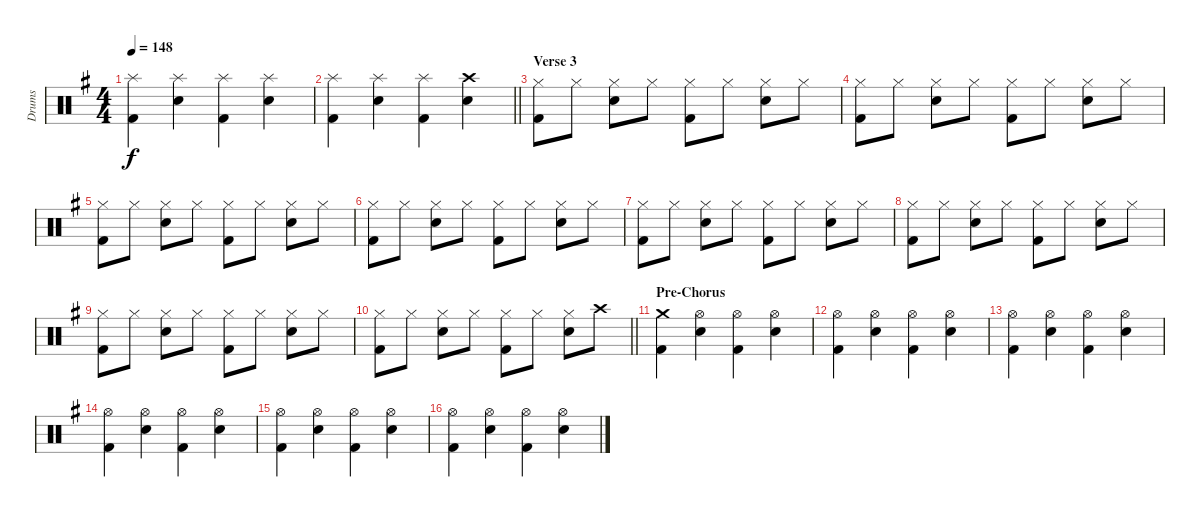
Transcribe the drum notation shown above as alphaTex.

\track ("Drums" "Drums") {instrument percussion}
\staff {score}
\articulation defaults
\ts (4 4)
\tempo 148
\clef neutral
\ks g
("Kick (hit) 2" "Splash (hit)").4{dy f} ("Snare (hit) 2" "Splash (hit)").4 ("Kick (hit) 2" "Splash (hit)").4 ("Snare (hit) 2" "Splash (hit)").4 |
\barLineRight lightlight
("Kick (hit) 2" "Splash (hit)").4 ("Snare (hit) 2" "Splash (hit)").4 ("Kick (hit) 2" "Splash (hit)").4 ("Snare (hit) 2" "Crash high (hit)").4 |
\section ("" "Verse 3")
("Kick (hit) 2" "Hi-Hat (closed)").8 "Hi-Hat (closed)".8 ("Snare (hit) 2" "Hi-Hat (closed)").8 "Hi-Hat (closed)".8 ("Kick (hit) 2" "Hi-Hat (closed)").8 "Hi-Hat (closed)".8 ("Snare (hit) 2" "Hi-Hat (closed)").8 "Hi-Hat (closed)".8 |
("Kick (hit) 2" "Hi-Hat (closed)").8 "Hi-Hat (closed)".8 ("Snare (hit) 2" "Hi-Hat (closed)").8 "Hi-Hat (closed)".8 ("Kick (hit) 2" "Hi-Hat (closed)").8 "Hi-Hat (closed)".8 ("Snare (hit) 2" "Hi-Hat (closed)").8 "Hi-Hat (closed)".8 |
("Kick (hit) 2" "Hi-Hat (closed)").8 "Hi-Hat (closed)".8 ("Snare (hit) 2" "Hi-Hat (closed)").8 "Hi-Hat (closed)".8 ("Kick (hit) 2" "Hi-Hat (closed)").8 "Hi-Hat (closed)".8 ("Snare (hit) 2" "Hi-Hat (closed)").8 "Hi-Hat (closed)".8 |
("Kick (hit) 2" "Hi-Hat (closed)").8 "Hi-Hat (closed)".8 ("Snare (hit) 2" "Hi-Hat (closed)").8 "Hi-Hat (closed)".8 ("Kick (hit) 2" "Hi-Hat (closed)").8 "Hi-Hat (closed)".8 ("Snare (hit) 2" "Hi-Hat (closed)").8 "Hi-Hat (closed)".8 |
("Kick (hit) 2" "Hi-Hat (closed)").8 "Hi-Hat (closed)".8 ("Snare (hit) 2" "Hi-Hat (closed)").8 "Hi-Hat (closed)".8 ("Kick (hit) 2" "Hi-Hat (closed)").8 "Hi-Hat (closed)".8 ("Snare (hit) 2" "Hi-Hat (closed)").8 "Hi-Hat (closed)".8 |
("Kick (hit) 2" "Hi-Hat (closed)").8 "Hi-Hat (closed)".8 ("Snare (hit) 2" "Hi-Hat (closed)").8 "Hi-Hat (closed)".8 ("Kick (hit) 2" "Hi-Hat (closed)").8 "Hi-Hat (closed)".8 ("Snare (hit) 2" "Hi-Hat (closed)").8 "Hi-Hat (closed)".8 |
("Kick (hit) 2" "Hi-Hat (closed)").8 "Hi-Hat (closed)".8 ("Snare (hit) 2" "Hi-Hat (closed)").8 "Hi-Hat (closed)".8 ("Kick (hit) 2" "Hi-Hat (closed)").8 "Hi-Hat (closed)".8 ("Snare (hit) 2" "Hi-Hat (closed)").8 "Hi-Hat (closed)".8 |
\barLineRight lightlight
("Kick (hit) 2" "Hi-Hat (closed)").8 "Hi-Hat (closed)".8 ("Snare (hit) 2" "Hi-Hat (closed)").8 "Hi-Hat (closed)".8 ("Kick (hit) 2" "Hi-Hat (closed)").8 "Hi-Hat (closed)".8 ("Snare (hit) 2" "Hi-Hat (closed)").8 "Crash high (hit)".8 |
\section ("" "Pre-Chorus")
("Kick (hit) 2" "Crash medium (hit)").4 ("Snare (hit) 2" "Hi-Hat (open)").4 ("Kick (hit) 2" "Hi-Hat (open)").4 ("Snare (hit) 2" "Hi-Hat (open)").4 |
("Kick (hit) 2" "Hi-Hat (open)").4 ("Snare (hit) 2" "Hi-Hat (open)").4 ("Kick (hit) 2" "Hi-Hat (open)").4 ("Snare (hit) 2" "Hi-Hat (open)").4 |
("Kick (hit) 2" "Hi-Hat (open)").4 ("Snare (hit) 2" "Hi-Hat (open)").4 ("Kick (hit) 2" "Hi-Hat (open)").4 ("Snare (hit) 2" "Hi-Hat (open)").4 |
("Kick (hit) 2" "Hi-Hat (open)").4 ("Snare (hit) 2" "Hi-Hat (open)").4 ("Kick (hit) 2" "Hi-Hat (open)").4 ("Snare (hit) 2" "Hi-Hat (open)").4 |
("Kick (hit) 2" "Hi-Hat (open)").4 ("Snare (hit) 2" "Hi-Hat (open)").4 ("Kick (hit) 2" "Hi-Hat (open)").4 ("Snare (hit) 2" "Hi-Hat (open)").4 |
("Kick (hit) 2" "Hi-Hat (open)").4 ("Snare (hit) 2" "Hi-Hat (open)").4 ("Kick (hit) 2" "Hi-Hat (open)").4 ("Snare (hit) 2" "Hi-Hat (open)").4
